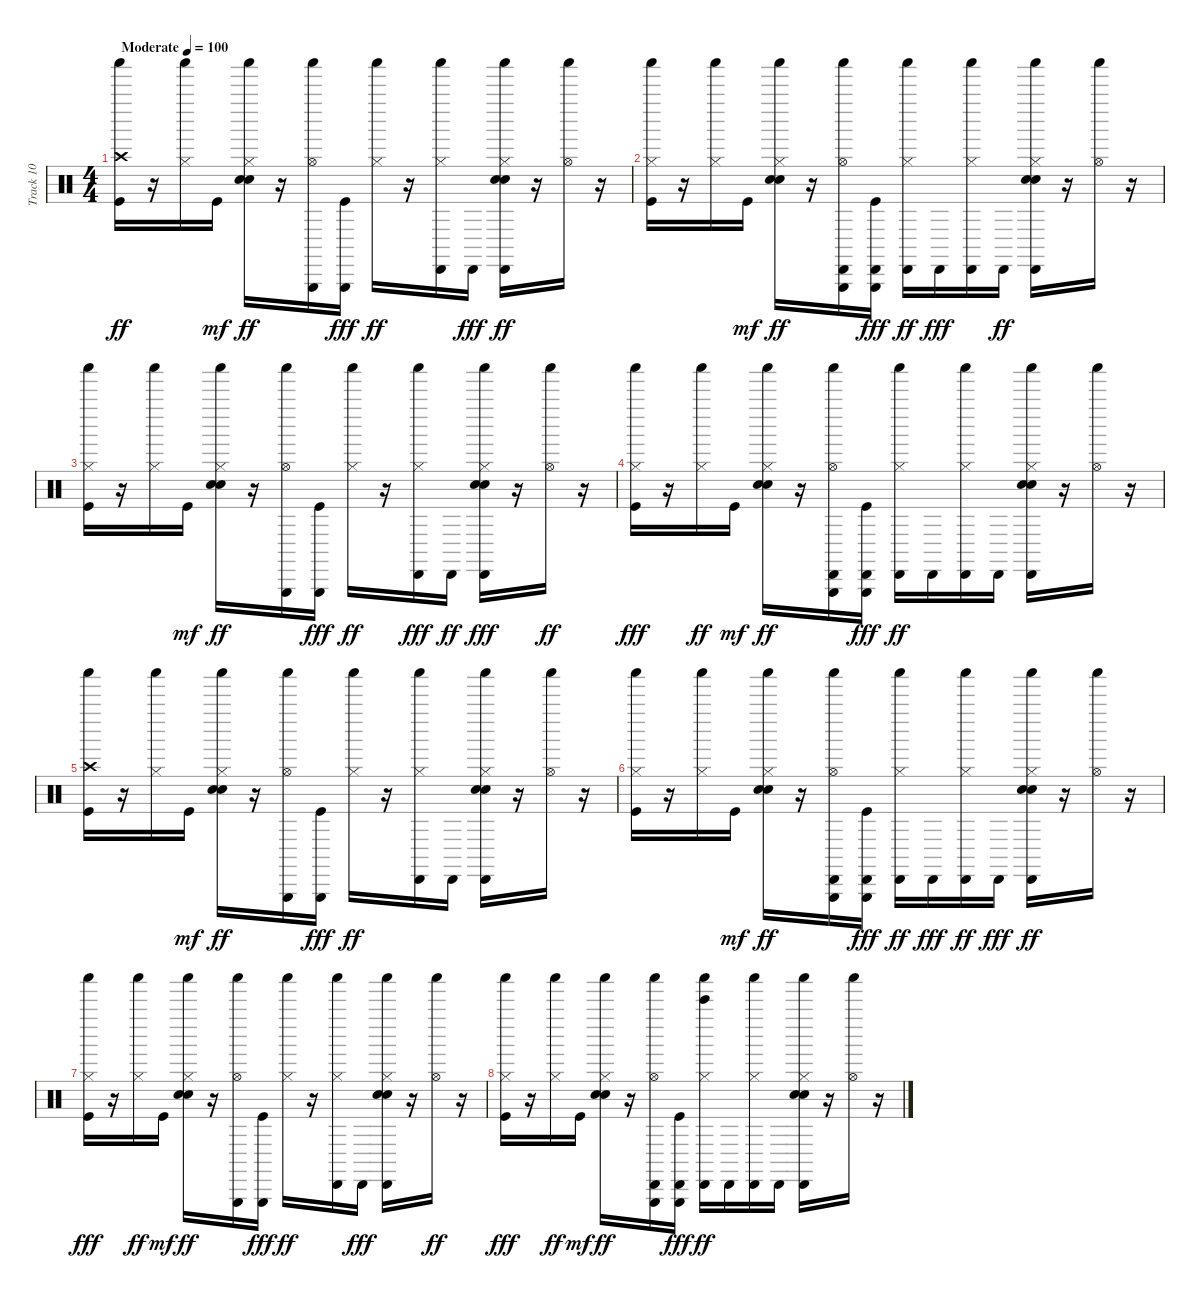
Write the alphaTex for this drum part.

\track ("Track 10" "Track 10") {instrument percussion}
\staff {score}
\articulation defaults
\ts (4 4)
\tempo (100 "Moderate")
\clef neutral
\ks c
("Kick (hit)" "Crash high (hit)" "Shaker (hit)").16{dy ff} r.16 ("Shaker (hit)" "Hi-Hat (closed)").16 "Kick (hit)".16{dy mf} ("Shaker (hit)" "Hi-Hat (closed)" "Hand Clap (hit)" "Electric Snare (hit)").16{dy ff} r.16 ("Triangle (hit)" "Shaker (hit)" "Hi-Hat (open)").16 ("Kick (hit)" "Triangle (hit)").16{dy fff} ("Shaker (hit)" "Hi-Hat (closed)").16{dy ff} r.16 ("Shaker (hit)" "Cabasa (hit)" "Hi-Hat (closed)").16 "Cabasa (hit)".16{dy fff} ("Hi-Hat (closed)" "Hand Clap (hit)" "Cabasa (hit)" "Shaker (hit)" "Electric Snare (hit)").16{dy ff} r.16 ("Shaker (hit)" "Hi-Hat (open)").16 r.16 |
("Kick (hit)" "Hi-Hat (closed)" "Shaker (hit)").16 r.16 ("Shaker (hit)" "Hi-Hat (closed)").16 "Kick (hit)".16{dy mf} ("Electric Snare (hit)" "Hi-Hat (closed)" "Hand Clap (hit)" "Shaker (hit)").16{dy ff} r.16 ("Shaker (hit)" "Cabasa (hit)" "Triangle (hit)" "Hi-Hat (open)").16 ("Cabasa (hit)" "Triangle (hit)" "Kick (hit)").16{dy fff} ("Cabasa (hit)" "Shaker (hit)" "Hi-Hat (closed)").16{dy ff} "Cabasa (hit)".16{dy fff} ("Hi-Hat (closed)" "Shaker (hit)" "Cabasa (hit)").16 "Cabasa (hit)".16{dy ff} ("Hand Clap (hit)" "Electric Snare (hit)" "Cabasa (hit)" "Shaker (hit)" "Hi-Hat (closed)").16 r.16 ("Hi-Hat (open)" "Shaker (hit)").16 r.16 |
("Kick (hit)" "Shaker (hit)" "Hi-Hat (closed)").16 r.16 ("Shaker (hit)" "Hi-Hat (closed)").16 "Kick (hit)".16{dy mf} ("Electric Snare (hit)" "Hi-Hat (closed)" "Hand Clap (hit)" "Shaker (hit)").16{dy ff} r.16 ("Shaker (hit)" "Triangle (hit)" "Hi-Hat (open)").16 ("Kick (hit)" "Triangle (hit)").16{dy fff} ("Hi-Hat (closed)" "Shaker (hit)").16{dy ff} r.16 ("Hi-Hat (closed)" "Cabasa (hit)" "Shaker (hit)").16{dy fff} "Cabasa (hit)".16{dy ff} ("Hi-Hat (closed)" "Shaker (hit)" "Hand Clap (hit)" "Electric Snare (hit)" "Cabasa (hit)").16{dy fff} r.16 ("Shaker (hit)" "Hi-Hat (open)").16{dy ff} r.16 |
("Hi-Hat (closed)" "Kick (hit)" "Shaker (hit)").16{dy fff} r.16 ("Hi-Hat (closed)" "Shaker (hit)").16{dy ff} "Kick (hit)".16{dy mf} ("Hand Clap (hit)" "Hi-Hat (closed)" "Electric Snare (hit)" "Shaker (hit)").16{dy ff} r.16 ("Cabasa (hit)" "Triangle (hit)" "Shaker (hit)" "Hi-Hat (open)").16 ("Cabasa (hit)" "Triangle (hit)" "Kick (hit)").16{dy fff} ("Cabasa (hit)" "Shaker (hit)" "Hi-Hat (closed)").16{dy ff} "Cabasa (hit)".16 ("Cabasa (hit)" "Hi-Hat (closed)" "Shaker (hit)").16 "Cabasa (hit)".16 ("Shaker (hit)" "Electric Snare (hit)" "Hand Clap (hit)" "Cabasa (hit)" "Hi-Hat (closed)").16 r.16 ("Shaker (hit)" "Hi-Hat (open)").16 r.16 |
("Kick (hit)" "Crash high (hit)" "Shaker (hit)").16 r.16 ("Shaker (hit)" "Hi-Hat (closed)").16 "Kick (hit)".16{dy mf} ("Electric Snare (hit)" "Shaker (hit)" "Hand Clap (hit)" "Hi-Hat (closed)").16{dy ff} r.16 ("Triangle (hit)" "Shaker (hit)" "Hi-Hat (open)").16 ("Triangle (hit)" "Kick (hit)").16{dy fff} ("Shaker (hit)" "Hi-Hat (closed)").16{dy ff} r.16 ("Hi-Hat (closed)" "Cabasa (hit)" "Shaker (hit)").16 "Cabasa (hit)".16 ("Shaker (hit)" "Cabasa (hit)" "Hand Clap (hit)" "Electric Snare (hit)" "Hi-Hat (closed)").16 r.16 ("Hi-Hat (open)" "Shaker (hit)").16 r.16 |
("Kick (hit)" "Hi-Hat (closed)" "Shaker (hit)").16 r.16 ("Hi-Hat (closed)" "Shaker (hit)").16 "Kick (hit)".16{dy mf} ("Hand Clap (hit)" "Hi-Hat (closed)" "Shaker (hit)" "Electric Snare (hit)").16{dy ff} r.16 ("Cabasa (hit)" "Shaker (hit)" "Triangle (hit)" "Hi-Hat (open)").16 ("Triangle (hit)" "Kick (hit)" "Cabasa (hit)").16{dy fff} ("Hi-Hat (closed)" "Cabasa (hit)" "Shaker (hit)").16{dy ff} "Cabasa (hit)".16{dy fff} ("Shaker (hit)" "Cabasa (hit)" "Hi-Hat (closed)").16{dy ff} "Cabasa (hit)".16{dy fff} ("Hand Clap (hit)" "Hi-Hat (closed)" "Cabasa (hit)" "Electric Snare (hit)" "Shaker (hit)").16{dy ff} r.16 ("Shaker (hit)" "Hi-Hat (open)").16 r.16 |
("Hi-Hat (closed)" "Shaker (hit)" "Kick (hit)").16{dy fff} r.16 ("Shaker (hit)" "Hi-Hat (closed)").16{dy ff} "Kick (hit)".16{dy mf} ("Electric Snare (hit)" "Shaker (hit)" "Hand Clap (hit)" "Hi-Hat (closed)").16{dy ff} r.16 ("Triangle (hit)" "Shaker (hit)" "Hi-Hat (open)").16 ("Triangle (hit)" "Kick (hit)").16{dy fff} ("Shaker (hit)" "Hi-Hat (closed)").16{dy ff} r.16 ("Cabasa (hit)" "Hi-Hat (closed)" "Shaker (hit)").16 "Cabasa (hit)".16{dy fff} ("Hi-Hat (closed)" "Electric Snare (hit)" "Hand Clap (hit)" "Shaker (hit)" "Cabasa (hit)").16 r.16 ("Hi-Hat (open)" "Shaker (hit)").16{dy ff} r.16 |
("Shaker (hit)" "Hi-Hat (closed)" "Kick (hit)").16{dy fff} r.16 ("Hi-Hat (closed)" "Shaker (hit)").16{dy ff} "Kick (hit)".16{dy mf} ("Electric Snare (hit)" "Hi-Hat (closed)" "Hand Clap (hit)" "Shaker (hit)").16{dy ff} r.16 ("Hi-Hat (open)" "Cabasa (hit)" "Triangle (hit)" "Shaker (hit)").16 ("Triangle (hit)" "Cabasa (hit)" "Kick (hit)").16{dy fff} ("Bell Tree (hit)" "Hi-Hat (closed)" "Cabasa (hit)" "Shaker (hit)").16{dy ff} "Cabasa (hit)".16 ("Cabasa (hit)" "Shaker (hit)" "Hi-Hat (closed)").16 "Cabasa (hit)".16 ("Cabasa (hit)" "Electric Snare (hit)" "Shaker (hit)" "Hand Clap (hit)" "Hi-Hat (closed)").16 r.16 ("Shaker (hit)" "Hi-Hat (open)").16 r.16
